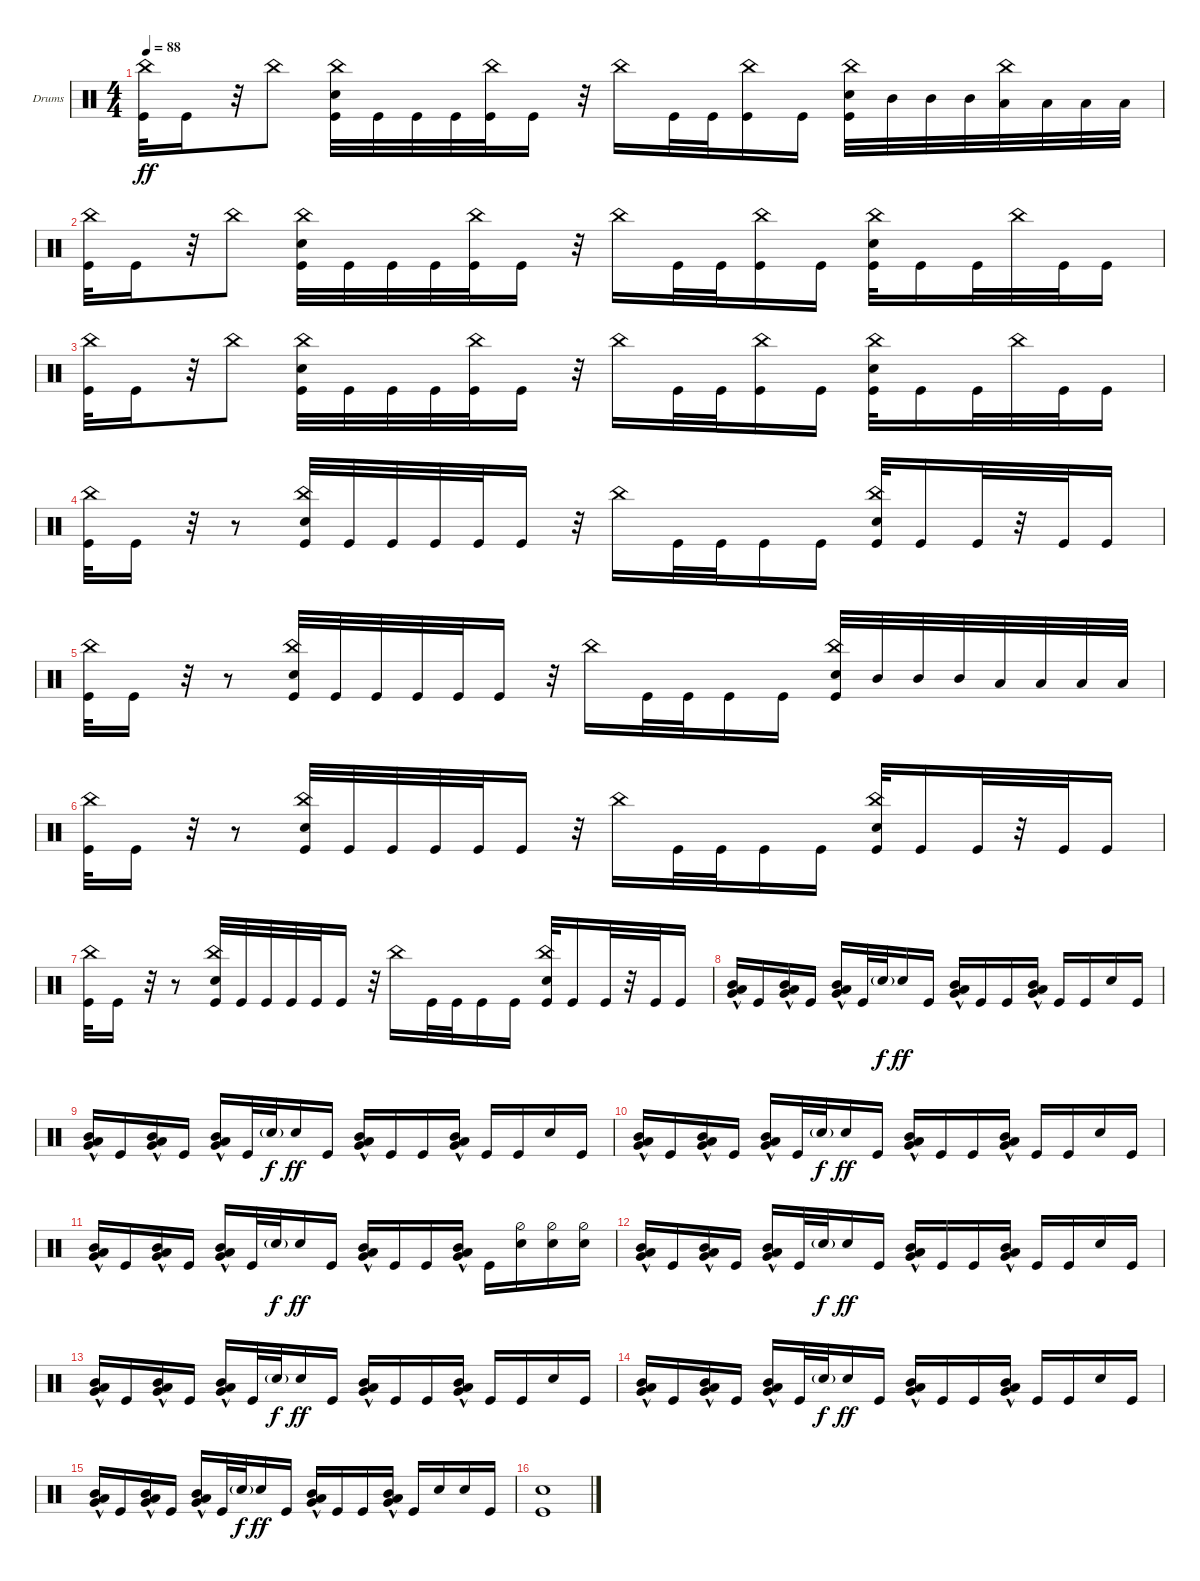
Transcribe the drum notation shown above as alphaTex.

\defaultSystemsLayout 4
\bracketExtendMode groupsimilarinstruments
\firstSystemTrackNameOrientation horizontal
\otherSystemsTrackNameOrientation horizontal
\track ("Drumkit" "Drums") {instrument percussion}
\staff {score}
\articulation defaults
\ts (4 4)
\tempo 88
\clef neutral
\ks c
("Kick (hit)" "China (hit)").32{dy ff} "Kick (hit)".16 r.32 "China (hit)".8 ("Kick (hit)" "China (hit)" "Snare (hit) 2").32 "Kick (hit)".32 "Kick (hit)".32 "Kick (hit)".32 ("Kick (hit)" "China (hit)").32 "Kick (hit)".16 r.32 "China (hit)".16 "Kick (hit)".32 "Kick (hit)".32 ("Kick (hit)" "China (hit)").16 "Kick (hit)".16 ("Kick (hit)" "China (hit)" "Snare (hit) 2").32 "Mid Tom (hit)".32 "Mid Tom (hit)".32 "Mid Tom (hit)".32 ("China (hit)" "Low Tom (hit)").32 "Low Tom (hit)".32 "Low Tom (hit)".32 "Low Tom (hit)".32 |
("Kick (hit)" "China (hit)").32 "Kick (hit)".16 r.32 "China (hit)".8 ("Kick (hit)" "China (hit)" "Snare (hit) 2").32 "Kick (hit)".32 "Kick (hit)".32 "Kick (hit)".32 ("Kick (hit)" "China (hit)").32 "Kick (hit)".16 r.32 "China (hit)".16 "Kick (hit)".32 "Kick (hit)".32 ("Kick (hit)" "China (hit)").16 "Kick (hit)".16 ("Kick (hit)" "China (hit)" "Snare (hit) 2").32 "Kick (hit)".16 "Kick (hit)".32 "China (hit)".32 "Kick (hit)".32 "Kick (hit)".16 |
("Kick (hit)" "China (hit)").32 "Kick (hit)".16 r.32 "China (hit)".8 ("Kick (hit)" "China (hit)" "Snare (hit) 2").32 "Kick (hit)".32 "Kick (hit)".32 "Kick (hit)".32 ("Kick (hit)" "China (hit)").32 "Kick (hit)".16 r.32 "China (hit)".16 "Kick (hit)".32 "Kick (hit)".32 ("Kick (hit)" "China (hit)").16 "Kick (hit)".16 ("Kick (hit)" "China (hit)" "Snare (hit) 2").32 "Kick (hit)".16 "Kick (hit)".32 "China (hit)".32 "Kick (hit)".32 "Kick (hit)".16 |
("Kick (hit)" "China (hit)").32 "Kick (hit)".16 r.32 r.8 ("Kick (hit)" "China (hit)" "Snare (hit) 2").32 "Kick (hit)".32 "Kick (hit)".32 "Kick (hit)".32 "Kick (hit)".32 "Kick (hit)".16 r.32 "China (hit)".16 "Kick (hit)".32 "Kick (hit)".32 "Kick (hit)".16 "Kick (hit)".16 ("Kick (hit)" "China (hit)" "Snare (hit) 2").32 "Kick (hit)".16 "Kick (hit)".32 r.32 "Kick (hit)".32 "Kick (hit)".16 |
("Kick (hit)" "China (hit)").32 "Kick (hit)".16 r.32 r.8 ("Kick (hit)" "China (hit)" "Snare (hit) 2").32 "Kick (hit)".32 "Kick (hit)".32 "Kick (hit)".32 "Kick (hit)".32 "Kick (hit)".16 r.32 "China (hit)".16 "Kick (hit)".32 "Kick (hit)".32 "Kick (hit)".16 "Kick (hit)".16 ("Kick (hit)" "China (hit)" "Snare (hit) 2").32 "Mid Tom (hit)".32 "Mid Tom (hit)".32 "Mid Tom (hit)".32 "Low Tom (hit)".32 "Low Tom (hit)".32 "Low Tom (hit)".32 "Low Tom (hit)".32 |
("Kick (hit)" "China (hit)").32 "Kick (hit)".16 r.32 r.8 ("Kick (hit)" "China (hit)" "Snare (hit) 2").32 "Kick (hit)".32 "Kick (hit)".32 "Kick (hit)".32 "Kick (hit)".32 "Kick (hit)".16 r.32 "China (hit)".16 "Kick (hit)".32 "Kick (hit)".32 "Kick (hit)".16 "Kick (hit)".16 ("Kick (hit)" "China (hit)" "Snare (hit) 2").32 "Kick (hit)".16 "Kick (hit)".32 r.32 "Kick (hit)".32 "Kick (hit)".16 |
("Kick (hit)" "China (hit)").32 "Kick (hit)".16 r.32 r.8 ("Kick (hit)" "China (hit)" "Snare (hit) 2").32 "Kick (hit)".32 "Kick (hit)".32 "Kick (hit)".32 "Kick (hit)".32 "Kick (hit)".16 r.32 "China (hit)".16 "Kick (hit)".32 "Kick (hit)".32 "Kick (hit)".16 "Kick (hit)".16 ("Kick (hit)" "China (hit)" "Snare (hit) 2").32 "Kick (hit)".16 "Kick (hit)".32 r.32 "Kick (hit)".32 "Kick (hit)".16 |
("Low Tom (hit)"{hac} "Very Low Tom (hit)"{hac} "Mid Tom (hit)"{hac}).16 "Kick (hit)".16 ("Very Low Tom (hit)"{hac} "Low Tom (hit)"{hac} "Mid Tom (hit)"{hac}).16 "Kick (hit)".16 ("Low Tom (hit)"{hac} "Very Low Tom (hit)"{hac} "Mid Tom (hit)"{hac}).16 "Kick (hit)".32 "Snare (hit) 2"{g}.32{dy f} "Snare (hit) 2".16{dy ff} "Kick (hit)".16 ("Very Low Tom (hit)"{hac} "Low Tom (hit)"{hac} "Mid Tom (hit)"{hac}).16 "Kick (hit)".16 "Kick (hit)".16 ("Very Low Tom (hit)"{hac} "Low Tom (hit)"{hac} "Mid Tom (hit)"{hac}).16 "Kick (hit)".16 "Kick (hit)".16 "Snare (hit) 2".16 "Kick (hit)".16 |
("Low Tom (hit)"{hac} "Very Low Tom (hit)"{hac} "Mid Tom (hit)"{hac}).16 "Kick (hit)".16 ("Very Low Tom (hit)"{hac} "Low Tom (hit)"{hac} "Mid Tom (hit)"{hac}).16 "Kick (hit)".16 ("Low Tom (hit)"{hac} "Very Low Tom (hit)"{hac} "Mid Tom (hit)"{hac}).16 "Kick (hit)".32 "Snare (hit) 2"{g}.32{dy f} "Snare (hit) 2".16{dy ff} "Kick (hit)".16 ("Very Low Tom (hit)"{hac} "Low Tom (hit)"{hac} "Mid Tom (hit)"{hac}).16 "Kick (hit)".16 "Kick (hit)".16 ("Very Low Tom (hit)"{hac} "Low Tom (hit)"{hac} "Mid Tom (hit)"{hac}).16 "Kick (hit)".16 "Kick (hit)".16 "Snare (hit) 2".16 "Kick (hit)".16 |
("Low Tom (hit)"{hac} "Very Low Tom (hit)"{hac} "Mid Tom (hit)"{hac}).16 "Kick (hit)".16 ("Very Low Tom (hit)"{hac} "Low Tom (hit)"{hac} "Mid Tom (hit)"{hac}).16 "Kick (hit)".16 ("Low Tom (hit)"{hac} "Very Low Tom (hit)"{hac} "Mid Tom (hit)"{hac}).16 "Kick (hit)".32 "Snare (hit) 2"{g}.32{dy f} "Snare (hit) 2".16{dy ff} "Kick (hit)".16 ("Very Low Tom (hit)"{hac} "Low Tom (hit)"{hac} "Mid Tom (hit)"{hac}).16 "Kick (hit)".16 "Kick (hit)".16 ("Very Low Tom (hit)"{hac} "Low Tom (hit)"{hac} "Mid Tom (hit)"{hac}).16 "Kick (hit)".16 "Kick (hit)".16 "Snare (hit) 2".16 "Kick (hit)".16 |
("Low Tom (hit)"{hac} "Very Low Tom (hit)"{hac} "Mid Tom (hit)"{hac}).16 "Kick (hit)".16 ("Very Low Tom (hit)"{hac} "Low Tom (hit)"{hac} "Mid Tom (hit)"{hac}).16 "Kick (hit)".16 ("Low Tom (hit)"{hac} "Very Low Tom (hit)"{hac} "Mid Tom (hit)"{hac}).16 "Kick (hit)".32 "Snare (hit) 2"{g}.32{dy f} "Snare (hit) 2".16{dy ff} "Kick (hit)".16 ("Very Low Tom (hit)"{hac} "Low Tom (hit)"{hac} "Mid Tom (hit)"{hac}).16 "Kick (hit)".16 "Kick (hit)".16 ("Very Low Tom (hit)"{hac} "Low Tom (hit)"{hac} "Mid Tom (hit)"{hac}).16 "Kick (hit)".16 ("Snare (hit) 2" "Hi-Hat (half)").16 ("Snare (hit) 2" "Hi-Hat (half)").16 ("Snare (hit) 2" "Hi-Hat (half)").16 |
("Low Tom (hit)"{hac} "Very Low Tom (hit)"{hac} "Mid Tom (hit)"{hac}).16 "Kick (hit)".16 ("Very Low Tom (hit)"{hac} "Low Tom (hit)"{hac} "Mid Tom (hit)"{hac}).16 "Kick (hit)".16 ("Low Tom (hit)"{hac} "Very Low Tom (hit)"{hac} "Mid Tom (hit)"{hac}).16 "Kick (hit)".32 "Snare (hit) 2"{g}.32{dy f} "Snare (hit) 2".16{dy ff} "Kick (hit)".16 ("Very Low Tom (hit)"{hac} "Low Tom (hit)"{hac} "Mid Tom (hit)"{hac}).16 "Kick (hit)".16 "Kick (hit)".16 ("Very Low Tom (hit)"{hac} "Low Tom (hit)"{hac} "Mid Tom (hit)"{hac}).16 "Kick (hit)".16 "Kick (hit)".16 "Snare (hit) 2".16 "Kick (hit)".16 |
("Low Tom (hit)"{hac} "Very Low Tom (hit)"{hac} "Mid Tom (hit)"{hac}).16 "Kick (hit)".16 ("Very Low Tom (hit)"{hac} "Low Tom (hit)"{hac} "Mid Tom (hit)"{hac}).16 "Kick (hit)".16 ("Low Tom (hit)"{hac} "Very Low Tom (hit)"{hac} "Mid Tom (hit)"{hac}).16 "Kick (hit)".32 "Snare (hit) 2"{g}.32{dy f} "Snare (hit) 2".16{dy ff} "Kick (hit)".16 ("Very Low Tom (hit)"{hac} "Low Tom (hit)"{hac} "Mid Tom (hit)"{hac}).16 "Kick (hit)".16 "Kick (hit)".16 ("Very Low Tom (hit)"{hac} "Low Tom (hit)"{hac} "Mid Tom (hit)"{hac}).16 "Kick (hit)".16 "Kick (hit)".16 "Snare (hit) 2".16 "Kick (hit)".16 |
("Low Tom (hit)"{hac} "Very Low Tom (hit)"{hac} "Mid Tom (hit)"{hac}).16 "Kick (hit)".16 ("Very Low Tom (hit)"{hac} "Low Tom (hit)"{hac} "Mid Tom (hit)"{hac}).16 "Kick (hit)".16 ("Low Tom (hit)"{hac} "Very Low Tom (hit)"{hac} "Mid Tom (hit)"{hac}).16 "Kick (hit)".32 "Snare (hit) 2"{g}.32{dy f} "Snare (hit) 2".16{dy ff} "Kick (hit)".16 ("Very Low Tom (hit)"{hac} "Low Tom (hit)"{hac} "Mid Tom (hit)"{hac}).16 "Kick (hit)".16 "Kick (hit)".16 ("Very Low Tom (hit)"{hac} "Low Tom (hit)"{hac} "Mid Tom (hit)"{hac}).16 "Kick (hit)".16 "Kick (hit)".16 "Snare (hit) 2".16 "Kick (hit)".16 |
("Low Tom (hit)"{hac} "Very Low Tom (hit)"{hac} "Mid Tom (hit)"{hac}).16 "Kick (hit)".16 ("Very Low Tom (hit)"{hac} "Low Tom (hit)"{hac} "Mid Tom (hit)"{hac}).16 "Kick (hit)".16 ("Low Tom (hit)"{hac} "Very Low Tom (hit)"{hac} "Mid Tom (hit)"{hac}).16 "Kick (hit)".32 "Snare (hit) 2"{g}.32{dy f} "Snare (hit) 2".16{dy ff} "Kick (hit)".16 ("Very Low Tom (hit)"{hac} "Low Tom (hit)"{hac} "Mid Tom (hit)"{hac}).16 "Kick (hit)".16 "Kick (hit)".16 ("Very Low Tom (hit)"{hac} "Low Tom (hit)"{hac} "Mid Tom (hit)"{hac}).16 "Kick (hit)".16 "Snare (hit) 2".16 "Snare (hit) 2".16 "Kick (hit)".16 |
("Snare (hit) 2" "Kick (hit)").1
